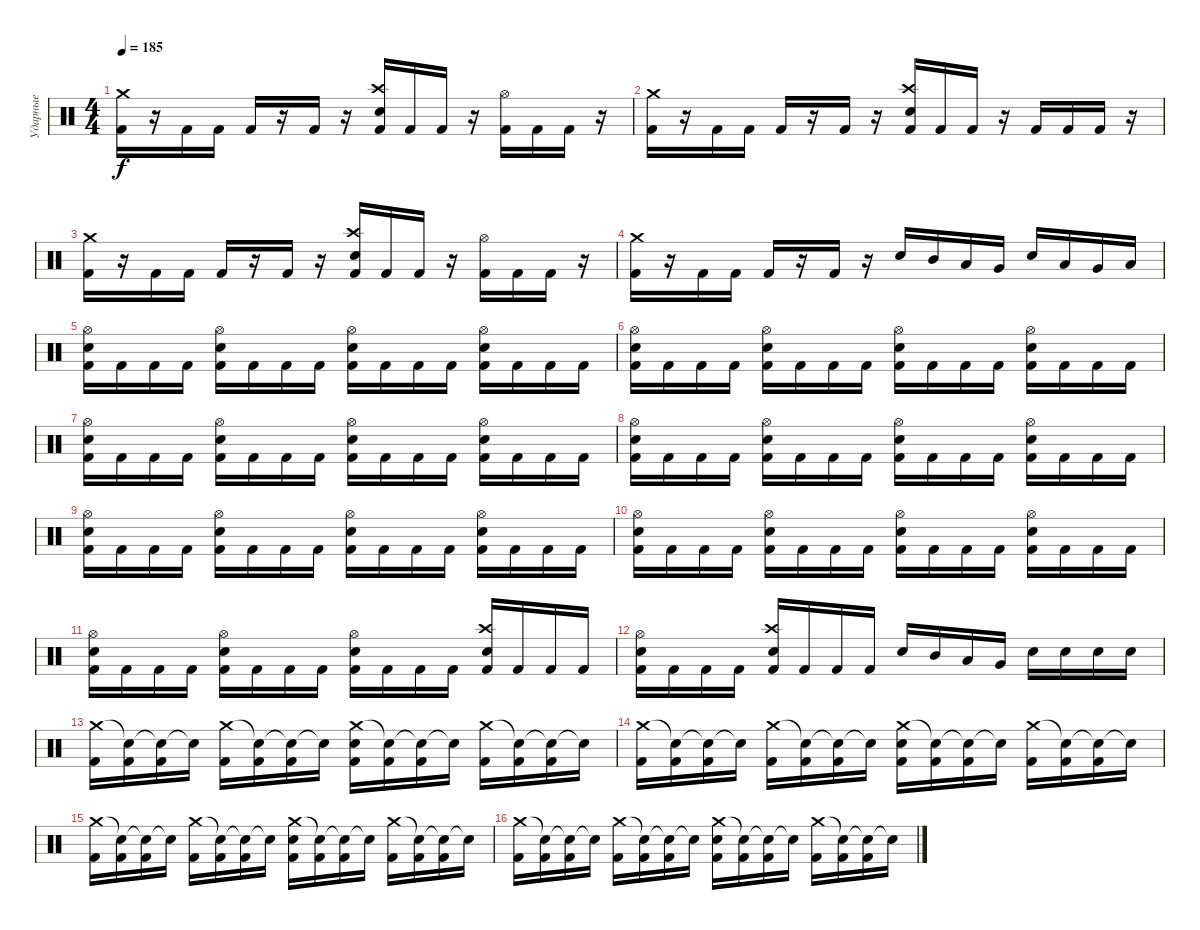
\track ("Ударные" "Ударные") {instrument percussion}
\staff {score}
\articulation defaults
\ts (4 4)
\tempo 185
\clef neutral
\ks c
("Crash medium (hit)" "Kick (hit) 2").16{dy f} r.16 "Kick (hit) 2".16 "Kick (hit) 2".16 "Kick (hit) 2".16 r.16 "Kick (hit) 2".16 r.16 ("Crash high (hit)" "Electric Snare (hit)" "Kick (hit) 2").16 "Kick (hit) 2".16 "Kick (hit) 2".16 r.16 ("Hi-Hat (open)" "Kick (hit) 2").16 "Kick (hit) 2".16 "Kick (hit) 2".16 r.16 |
("Crash medium (hit)" "Kick (hit) 2").16 r.16 "Kick (hit) 2".16 "Kick (hit) 2".16 "Kick (hit) 2".16 r.16 "Kick (hit) 2".16 r.16 ("Crash high (hit)" "Electric Snare (hit)" "Kick (hit) 2").16 "Kick (hit) 2".16 "Kick (hit) 2".16 r.16 "Kick (hit) 2".16 "Kick (hit) 2".16 "Kick (hit) 2".16 r.16 |
("Crash medium (hit)" "Kick (hit) 2").16 r.16 "Kick (hit) 2".16 "Kick (hit) 2".16 "Kick (hit) 2".16 r.16 "Kick (hit) 2".16 r.16 ("Crash high (hit)" "Electric Snare (hit)" "Kick (hit) 2").16 "Kick (hit) 2".16 "Kick (hit) 2".16 r.16 ("Hi-Hat (open)" "Kick (hit) 2").16 "Kick (hit) 2".16 "Kick (hit) 2".16 r.16 |
("Crash medium (hit)" "Kick (hit) 2").16 r.16 "Kick (hit) 2".16 "Kick (hit) 2".16 "Kick (hit) 2".16 r.16 "Kick (hit) 2".16 r.16 "Electric Snare (hit)".16 "Mid Tom (hit)".16 "Low Tom (hit)".16 "Very Low Tom (hit)".16 "Electric Snare (hit)".16 "Low Tom (hit)".16 "Very Low Tom (hit)".16 "Low Floor Tom (hit)".16 |
("Hi-Hat (open)" "Electric Snare (hit)" "Kick (hit) 2").16 "Kick (hit) 2".16 "Kick (hit) 2".16 "Kick (hit) 2".16 ("Hi-Hat (open)" "Electric Snare (hit)" "Kick (hit) 2").16 "Kick (hit) 2".16 "Kick (hit) 2".16 "Kick (hit) 2".16 ("Hi-Hat (open)" "Electric Snare (hit)" "Kick (hit) 2").16 "Kick (hit) 2".16 "Kick (hit) 2".16 "Kick (hit) 2".16 ("Hi-Hat (open)" "Electric Snare (hit)" "Kick (hit) 2").16 "Kick (hit) 2".16 "Kick (hit) 2".16 "Kick (hit) 2".16 |
("Hi-Hat (open)" "Electric Snare (hit)" "Kick (hit) 2").16 "Kick (hit) 2".16 "Kick (hit) 2".16 "Kick (hit) 2".16 ("Hi-Hat (open)" "Electric Snare (hit)" "Kick (hit) 2").16 "Kick (hit) 2".16 "Kick (hit) 2".16 "Kick (hit) 2".16 ("Hi-Hat (open)" "Electric Snare (hit)" "Kick (hit) 2").16 "Kick (hit) 2".16 "Kick (hit) 2".16 "Kick (hit) 2".16 ("Hi-Hat (open)" "Electric Snare (hit)" "Kick (hit) 2").16 "Kick (hit) 2".16 "Kick (hit) 2".16 "Kick (hit) 2".16 |
("Hi-Hat (open)" "Electric Snare (hit)" "Kick (hit) 2").16 "Kick (hit) 2".16 "Kick (hit) 2".16 "Kick (hit) 2".16 ("Hi-Hat (open)" "Electric Snare (hit)" "Kick (hit) 2").16 "Kick (hit) 2".16 "Kick (hit) 2".16 "Kick (hit) 2".16 ("Hi-Hat (open)" "Electric Snare (hit)" "Kick (hit) 2").16 "Kick (hit) 2".16 "Kick (hit) 2".16 "Kick (hit) 2".16 ("Hi-Hat (open)" "Electric Snare (hit)" "Kick (hit) 2").16 "Kick (hit) 2".16 "Kick (hit) 2".16 "Kick (hit) 2".16 |
("Hi-Hat (open)" "Electric Snare (hit)" "Kick (hit) 2").16 "Kick (hit) 2".16 "Kick (hit) 2".16 "Kick (hit) 2".16 ("Hi-Hat (open)" "Electric Snare (hit)" "Kick (hit) 2").16 "Kick (hit) 2".16 "Kick (hit) 2".16 "Kick (hit) 2".16 ("Hi-Hat (open)" "Electric Snare (hit)" "Kick (hit) 2").16 "Kick (hit) 2".16 "Kick (hit) 2".16 "Kick (hit) 2".16 ("Hi-Hat (open)" "Electric Snare (hit)" "Kick (hit) 2").16 "Kick (hit) 2".16 "Kick (hit) 2".16 "Kick (hit) 2".16 |
("Hi-Hat (open)" "Electric Snare (hit)" "Kick (hit) 2").16 "Kick (hit) 2".16 "Kick (hit) 2".16 "Kick (hit) 2".16 ("Hi-Hat (open)" "Electric Snare (hit)" "Kick (hit) 2").16 "Kick (hit) 2".16 "Kick (hit) 2".16 "Kick (hit) 2".16 ("Hi-Hat (open)" "Electric Snare (hit)" "Kick (hit) 2").16 "Kick (hit) 2".16 "Kick (hit) 2".16 "Kick (hit) 2".16 ("Hi-Hat (open)" "Electric Snare (hit)" "Kick (hit) 2").16 "Kick (hit) 2".16 "Kick (hit) 2".16 "Kick (hit) 2".16 |
("Hi-Hat (open)" "Electric Snare (hit)" "Kick (hit) 2").16 "Kick (hit) 2".16 "Kick (hit) 2".16 "Kick (hit) 2".16 ("Hi-Hat (open)" "Electric Snare (hit)" "Kick (hit) 2").16 "Kick (hit) 2".16 "Kick (hit) 2".16 "Kick (hit) 2".16 ("Hi-Hat (open)" "Electric Snare (hit)" "Kick (hit) 2").16 "Kick (hit) 2".16 "Kick (hit) 2".16 "Kick (hit) 2".16 ("Hi-Hat (open)" "Electric Snare (hit)" "Kick (hit) 2").16 "Kick (hit) 2".16 "Kick (hit) 2".16 "Kick (hit) 2".16 |
("Hi-Hat (open)" "Electric Snare (hit)" "Kick (hit) 2").16 "Kick (hit) 2".16 "Kick (hit) 2".16 "Kick (hit) 2".16 ("Hi-Hat (open)" "Electric Snare (hit)" "Kick (hit) 2").16 "Kick (hit) 2".16 "Kick (hit) 2".16 "Kick (hit) 2".16 ("Hi-Hat (open)" "Electric Snare (hit)" "Kick (hit) 2").16 "Kick (hit) 2".16 "Kick (hit) 2".16 "Kick (hit) 2".16 ("Crash high (hit)" "Electric Snare (hit)" "Kick (hit) 2").16 "Kick (hit) 2".16 "Kick (hit) 2".16 "Kick (hit) 2".16 |
("Hi-Hat (open)" "Electric Snare (hit)" "Kick (hit) 2").16 "Kick (hit) 2".16 "Kick (hit) 2".16 "Kick (hit) 2".16 ("Crash high (hit)" "Electric Snare (hit)" "Kick (hit) 2").16 "Kick (hit) 2".16 "Kick (hit) 2".16 "Kick (hit) 2".16 "Electric Snare (hit)".16 "Mid Tom (hit)".16 "Low Tom (hit)".16 "Very Low Tom (hit)".16 "Electric Snare (hit)".16 "Electric Snare (hit)".16 "Electric Snare (hit)".16 "Electric Snare (hit)".16 |
("Crash medium (hit)" "Kick (hit) 2").16 ("Snare (hit)"{t} "Kick (hit) 2").16 ("Snare (hit)"{t} "Kick (hit) 2").16 "Snare (hit)"{t}.16 ("Crash medium (hit)" "Kick (hit) 2").16 ("Snare (hit)"{t} "Kick (hit) 2").16 ("Snare (hit)"{t} "Kick (hit) 2").16 "Snare (hit)"{t}.16 ("Crash medium (hit)" "Electric Snare (hit)" "Kick (hit) 2").16 ("Snare (hit)"{t} "Kick (hit) 2").16 ("Snare (hit)"{t} "Kick (hit) 2").16 "Snare (hit)"{t}.16 ("Crash medium (hit)" "Kick (hit) 2").16 ("Snare (hit)"{t} "Kick (hit) 2").16 ("Snare (hit)"{t} "Kick (hit) 2").16 "Snare (hit)"{t}.16 |
("Crash medium (hit)" "Kick (hit) 2").16 ("Snare (hit)"{t} "Kick (hit) 2").16 ("Snare (hit)"{t} "Kick (hit) 2").16 "Snare (hit)"{t}.16 ("Crash medium (hit)" "Kick (hit) 2").16 ("Snare (hit)"{t} "Kick (hit) 2").16 ("Snare (hit)"{t} "Kick (hit) 2").16 "Snare (hit)"{t}.16 ("Crash medium (hit)" "Electric Snare (hit)" "Kick (hit) 2").16 ("Snare (hit)"{t} "Kick (hit) 2").16 ("Snare (hit)"{t} "Kick (hit) 2").16 "Snare (hit)"{t}.16 ("Crash medium (hit)" "Kick (hit) 2").16 ("Snare (hit)"{t} "Kick (hit) 2").16 ("Snare (hit)"{t} "Kick (hit) 2").16 "Snare (hit)"{t}.16 |
("Crash medium (hit)" "Kick (hit) 2").16 ("Snare (hit)"{t} "Kick (hit) 2").16 ("Snare (hit)"{t} "Kick (hit) 2").16 "Snare (hit)"{t}.16 ("Crash medium (hit)" "Kick (hit) 2").16 ("Snare (hit)"{t} "Kick (hit) 2").16 ("Snare (hit)"{t} "Kick (hit) 2").16 "Snare (hit)"{t}.16 ("Crash medium (hit)" "Electric Snare (hit)" "Kick (hit) 2").16 ("Snare (hit)"{t} "Kick (hit) 2").16 ("Snare (hit)"{t} "Kick (hit) 2").16 "Snare (hit)"{t}.16 ("Crash medium (hit)" "Kick (hit) 2").16 ("Snare (hit)"{t} "Kick (hit) 2").16 ("Snare (hit)"{t} "Kick (hit) 2").16 "Snare (hit)"{t}.16 |
("Crash medium (hit)" "Kick (hit) 2").16 ("Snare (hit)"{t} "Kick (hit) 2").16 ("Snare (hit)"{t} "Kick (hit) 2").16 "Snare (hit)"{t}.16 ("Crash medium (hit)" "Kick (hit) 2").16 ("Snare (hit)"{t} "Kick (hit) 2").16 ("Snare (hit)"{t} "Kick (hit) 2").16 "Snare (hit)"{t}.16 ("Crash medium (hit)" "Electric Snare (hit)" "Kick (hit) 2").16 ("Snare (hit)"{t} "Kick (hit) 2").16 ("Snare (hit)"{t} "Kick (hit) 2").16 "Snare (hit)"{t}.16 ("Crash medium (hit)" "Kick (hit) 2").16 ("Snare (hit)"{t} "Kick (hit) 2").16 ("Snare (hit)"{t} "Kick (hit) 2").16 "Snare (hit)"{t}.16
